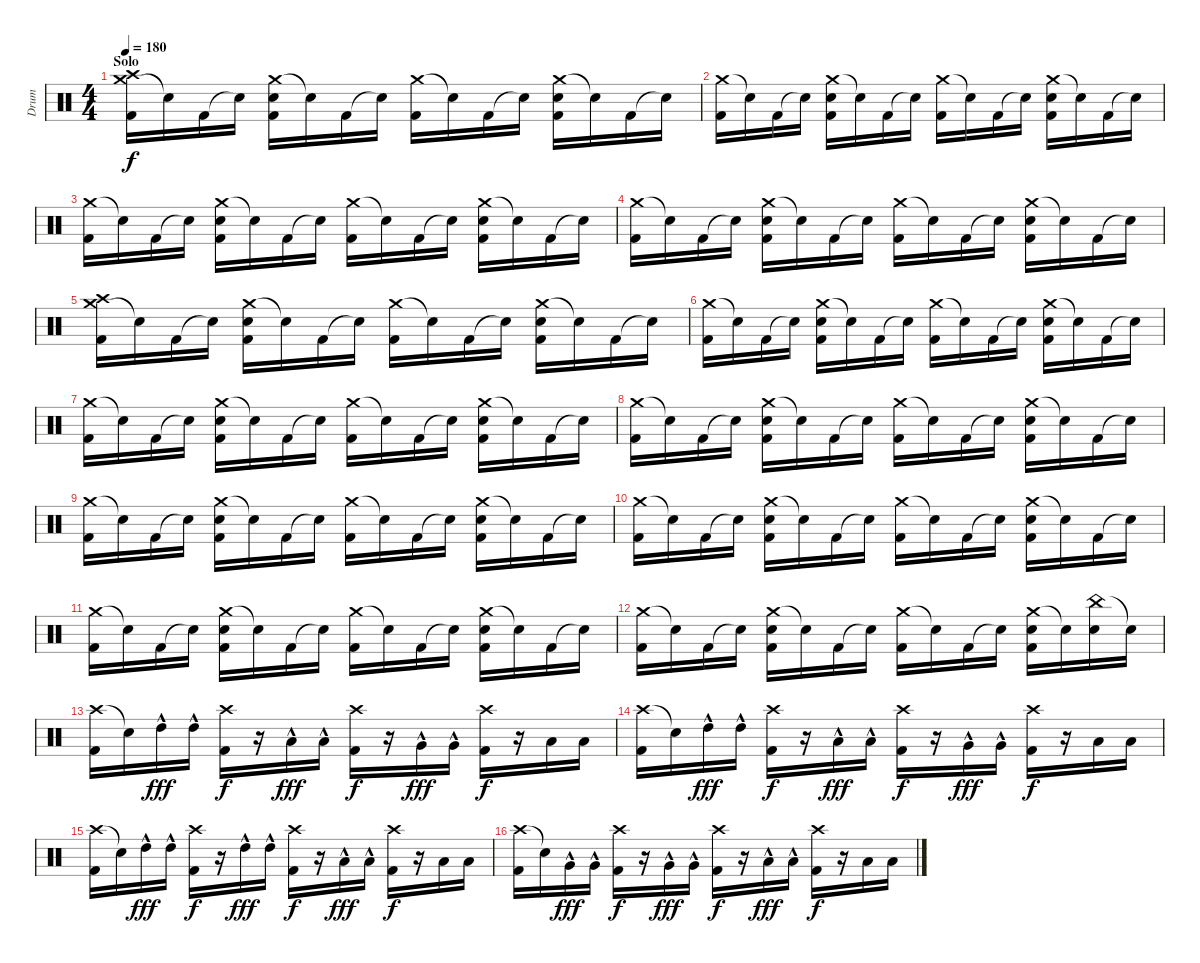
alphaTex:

\track ("Drum" "Drum") {instrument percussion}
\staff {score}
\articulation defaults
\ts (4 4)
\section ("" "Solo")
\tempo 180
\clef neutral
\ks c
("Crash medium (hit)" "Crash high (hit)" "Kick (hit) 2").16{dy f} "Snare (hit)"{t}.16 "Kick (hit) 2".16 "Snare (hit)"{t}.16 ("Crash medium (hit)" "Electric Snare (hit)" "Kick (hit) 2").16 "Snare (hit)"{t}.16 "Kick (hit) 2".16 "Snare (hit)"{t}.16 ("Crash medium (hit)" "Kick (hit) 2").16 "Snare (hit)"{t}.16 "Kick (hit) 2".16 "Snare (hit)"{t}.16 ("Crash medium (hit)" "Electric Snare (hit)" "Kick (hit) 2").16 "Snare (hit)"{t}.16 "Kick (hit) 2".16 "Snare (hit)"{t}.16 |
("Crash medium (hit)" "Kick (hit) 2").16 "Snare (hit)"{t}.16 "Kick (hit) 2".16 "Snare (hit)"{t}.16 ("Crash medium (hit)" "Electric Snare (hit)" "Kick (hit) 2").16 "Snare (hit)"{t}.16 "Kick (hit) 2".16 "Snare (hit)"{t}.16 ("Crash medium (hit)" "Kick (hit) 2").16 "Snare (hit)"{t}.16 "Kick (hit) 2".16 "Snare (hit)"{t}.16 ("Crash medium (hit)" "Electric Snare (hit)" "Kick (hit) 2").16 "Snare (hit)"{t}.16 "Kick (hit) 2".16 "Snare (hit)"{t}.16 |
("Crash medium (hit)" "Kick (hit) 2").16 "Snare (hit)"{t}.16 "Kick (hit) 2".16 "Snare (hit)"{t}.16 ("Crash medium (hit)" "Electric Snare (hit)" "Kick (hit) 2").16 "Snare (hit)"{t}.16 "Kick (hit) 2".16 "Snare (hit)"{t}.16 ("Crash medium (hit)" "Kick (hit) 2").16 "Snare (hit)"{t}.16 "Kick (hit) 2".16 "Snare (hit)"{t}.16 ("Crash medium (hit)" "Electric Snare (hit)" "Kick (hit) 2").16 "Snare (hit)"{t}.16 "Kick (hit) 2".16 "Snare (hit)"{t}.16 |
("Crash medium (hit)" "Kick (hit) 2").16 "Snare (hit)"{t}.16 "Kick (hit) 2".16 "Snare (hit)"{t}.16 ("Crash medium (hit)" "Electric Snare (hit)" "Kick (hit) 2").16 "Snare (hit)"{t}.16 "Kick (hit) 2".16 "Snare (hit)"{t}.16 ("Crash medium (hit)" "Kick (hit) 2").16 "Snare (hit)"{t}.16 "Kick (hit) 2".16 "Snare (hit)"{t}.16 ("Crash medium (hit)" "Electric Snare (hit)" "Kick (hit) 2").16 "Snare (hit)"{t}.16 "Kick (hit) 2".16 "Snare (hit)"{t}.16 |
("Crash medium (hit)" "Crash high (hit)" "Kick (hit) 2").16 "Snare (hit)"{t}.16 "Kick (hit) 2".16 "Snare (hit)"{t}.16 ("Crash medium (hit)" "Electric Snare (hit)" "Kick (hit) 2").16 "Snare (hit)"{t}.16 "Kick (hit) 2".16 "Snare (hit)"{t}.16 ("Crash medium (hit)" "Kick (hit) 2").16 "Snare (hit)"{t}.16 "Kick (hit) 2".16 "Snare (hit)"{t}.16 ("Crash medium (hit)" "Electric Snare (hit)" "Kick (hit) 2").16 "Snare (hit)"{t}.16 "Kick (hit) 2".16 "Snare (hit)"{t}.16 |
("Crash medium (hit)" "Kick (hit) 2").16 "Snare (hit)"{t}.16 "Kick (hit) 2".16 "Snare (hit)"{t}.16 ("Crash medium (hit)" "Electric Snare (hit)" "Kick (hit) 2").16 "Snare (hit)"{t}.16 "Kick (hit) 2".16 "Snare (hit)"{t}.16 ("Crash medium (hit)" "Kick (hit) 2").16 "Snare (hit)"{t}.16 "Kick (hit) 2".16 "Snare (hit)"{t}.16 ("Crash medium (hit)" "Electric Snare (hit)" "Kick (hit) 2").16 "Snare (hit)"{t}.16 "Kick (hit) 2".16 "Snare (hit)"{t}.16 |
("Crash medium (hit)" "Kick (hit) 2").16 "Snare (hit)"{t}.16 "Kick (hit) 2".16 "Snare (hit)"{t}.16 ("Crash medium (hit)" "Electric Snare (hit)" "Kick (hit) 2").16 "Snare (hit)"{t}.16 "Kick (hit) 2".16 "Snare (hit)"{t}.16 ("Crash medium (hit)" "Kick (hit) 2").16 "Snare (hit)"{t}.16 "Kick (hit) 2".16 "Snare (hit)"{t}.16 ("Crash medium (hit)" "Electric Snare (hit)" "Kick (hit) 2").16 "Snare (hit)"{t}.16 "Kick (hit) 2".16 "Snare (hit)"{t}.16 |
("Crash medium (hit)" "Kick (hit) 2").16 "Snare (hit)"{t}.16 "Kick (hit) 2".16 "Snare (hit)"{t}.16 ("Crash medium (hit)" "Electric Snare (hit)" "Kick (hit) 2").16 "Snare (hit)"{t}.16 "Kick (hit) 2".16 "Snare (hit)"{t}.16 ("Crash medium (hit)" "Kick (hit) 2").16 "Snare (hit)"{t}.16 "Kick (hit) 2".16 "Snare (hit)"{t}.16 ("Crash medium (hit)" "Electric Snare (hit)" "Kick (hit) 2").16 "Snare (hit)"{t}.16 "Kick (hit) 2".16 "Snare (hit)"{t}.16 |
("Crash medium (hit)" "Kick (hit) 2").16 "Snare (hit)"{t}.16 "Kick (hit) 2".16 "Snare (hit)"{t}.16 ("Crash medium (hit)" "Electric Snare (hit)" "Kick (hit) 2").16 "Snare (hit)"{t}.16 "Kick (hit) 2".16 "Snare (hit)"{t}.16 ("Crash medium (hit)" "Kick (hit) 2").16 "Snare (hit)"{t}.16 "Kick (hit) 2".16 "Snare (hit)"{t}.16 ("Crash medium (hit)" "Electric Snare (hit)" "Kick (hit) 2").16 "Snare (hit)"{t}.16 "Kick (hit) 2".16 "Snare (hit)"{t}.16 |
("Crash medium (hit)" "Kick (hit) 2").16 "Snare (hit)"{t}.16 "Kick (hit) 2".16 "Snare (hit)"{t}.16 ("Crash medium (hit)" "Electric Snare (hit)" "Kick (hit) 2").16 "Snare (hit)"{t}.16 "Kick (hit) 2".16 "Snare (hit)"{t}.16 ("Crash medium (hit)" "Kick (hit) 2").16 "Snare (hit)"{t}.16 "Kick (hit) 2".16 "Snare (hit)"{t}.16 ("Crash medium (hit)" "Electric Snare (hit)" "Kick (hit) 2").16 "Snare (hit)"{t}.16 "Kick (hit) 2".16 "Snare (hit)"{t}.16 |
("Crash medium (hit)" "Kick (hit) 2").16 "Snare (hit)"{t}.16 "Kick (hit) 2".16 "Snare (hit)"{t}.16 ("Crash medium (hit)" "Electric Snare (hit)" "Kick (hit) 2").16 "Snare (hit)"{t}.16 "Kick (hit) 2".16 "Snare (hit)"{t}.16 ("Crash medium (hit)" "Kick (hit) 2").16 "Snare (hit)"{t}.16 "Kick (hit) 2".16 "Snare (hit)"{t}.16 ("Crash medium (hit)" "Electric Snare (hit)" "Kick (hit) 2").16 "Snare (hit)"{t}.16 "Kick (hit) 2".16 "Snare (hit)"{t}.16 |
("Crash medium (hit)" "Kick (hit) 2").16 "Snare (hit)"{t}.16 "Kick (hit) 2".16 "Snare (hit)"{t}.16 ("Crash medium (hit)" "Electric Snare (hit)" "Kick (hit) 2").16 "Snare (hit)"{t}.16 "Kick (hit) 2".16 "Snare (hit)"{t}.16 ("Crash medium (hit)" "Kick (hit) 2").16 "Snare (hit)"{t}.16 "Kick (hit) 2".16 "Snare (hit)"{t}.16 ("Crash medium (hit)" "Electric Snare (hit)" "Kick (hit) 2").16 "Snare (hit)"{t}.16 ("China (hit)" "Electric Snare (hit)").16 "Snare (hit)"{t}.16 |
("Crash high (hit)" "Kick (hit) 2").16 "Snare (hit)"{t}.16 "High Tom (hit)"{hac}.16{dy fff} "High Tom (hit)"{hac}.16 ("Crash high (hit)" "Kick (hit) 2").16{dy f} r.16 "Low Tom (hit)"{hac}.16{dy fff} "Low Tom (hit)"{hac}.16 ("Crash high (hit)" "Kick (hit) 2").16{dy f} r.16 "Very Low Tom (hit)"{hac}.16{dy fff} "Very Low Tom (hit)"{hac}.16 ("Crash high (hit)" "Kick (hit) 2").16{dy f} r.16 "Low Floor Tom (hit)".16 "Low Floor Tom (hit)".16 |
("Crash high (hit)" "Kick (hit) 2").16 "Snare (hit)"{t}.16 "High Tom (hit)"{hac}.16{dy fff} "High Tom (hit)"{hac}.16 ("Crash high (hit)" "Kick (hit) 2").16{dy f} r.16 "Low Tom (hit)"{hac}.16{dy fff} "Low Tom (hit)"{hac}.16 ("Crash high (hit)" "Kick (hit) 2").16{dy f} r.16 "Very Low Tom (hit)"{hac}.16{dy fff} "Very Low Tom (hit)"{hac}.16 ("Crash high (hit)" "Kick (hit) 2").16{dy f} r.16 "Low Floor Tom (hit)".16 "Low Floor Tom (hit)".16 |
("Crash high (hit)" "Kick (hit) 2").16 "Snare (hit)"{t}.16 "High Tom (hit)"{hac}.16{dy fff} "High Tom (hit)"{hac}.16 ("Crash high (hit)" "Kick (hit) 2").16{dy f} r.16 "High Tom (hit)"{hac}.16{dy fff} "High Tom (hit)"{hac}.16 ("Crash high (hit)" "Kick (hit) 2").16{dy f} r.16 "Low Tom (hit)"{hac}.16{dy fff} "Low Tom (hit)"{hac}.16 ("Crash high (hit)" "Kick (hit) 2").16{dy f} r.16 "Low Tom (hit)".16 "Low Tom (hit)".16 |
("Crash high (hit)" "Kick (hit) 2").16 "Snare (hit)"{t}.16 "Very Low Tom (hit)"{hac}.16{dy fff} "Very Low Tom (hit)"{hac}.16 ("Crash high (hit)" "Kick (hit) 2").16{dy f} r.16 "Very Low Tom (hit)"{hac}.16{dy fff} "Very Low Tom (hit)"{hac}.16 ("Crash high (hit)" "Kick (hit) 2").16{dy f} r.16 "Low Floor Tom (hit)"{hac}.16{dy fff} "Low Floor Tom (hit)"{hac}.16 ("Crash high (hit)" "Kick (hit) 2").16{dy f} r.16 "Low Floor Tom (hit)".16 "Low Floor Tom (hit)".16
